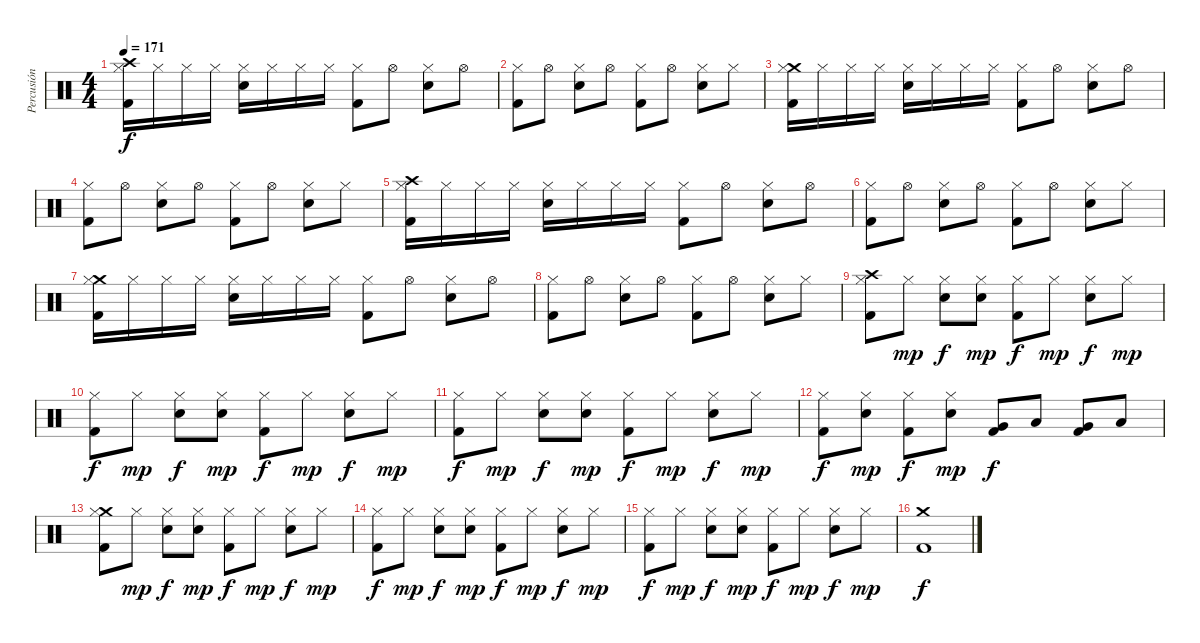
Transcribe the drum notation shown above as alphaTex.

\track ("Percusión" "Percusión") {instrument percussion}
\staff {score}
\articulation defaults
\ts (4 4)
\tempo 171
\clef neutral
\ks c
("Crash high (hit)" "Hi-Hat (closed)" "Kick (hit) 2").16{dy f} "Hi-Hat (closed)".16 "Hi-Hat (closed)".16 "Hi-Hat (closed)".16 ("Hi-Hat (closed)" "Electric Snare (hit)").16 "Hi-Hat (closed)".16 "Hi-Hat (closed)".16 "Hi-Hat (closed)".16 ("Hi-Hat (closed)" "Kick (hit) 2").8 "Hi-Hat (open)".8 ("Hi-Hat (closed)" "Electric Snare (hit)").8 "Hi-Hat (open)".8 |
("Hi-Hat (closed)" "Kick (hit) 2").8 "Hi-Hat (open)".8 ("Hi-Hat (closed)" "Electric Snare (hit)").8 "Hi-Hat (open)".8 ("Hi-Hat (closed)" "Kick (hit) 2").8 "Hi-Hat (open)".8 ("Hi-Hat (closed)" "Electric Snare (hit)").8 "Hi-Hat (closed)".8 |
("Crash medium (hit)" "Hi-Hat (closed)" "Kick (hit) 2").16 "Hi-Hat (closed)".16 "Hi-Hat (closed)".16 "Hi-Hat (closed)".16 ("Hi-Hat (closed)" "Electric Snare (hit)").16 "Hi-Hat (closed)".16 "Hi-Hat (closed)".16 "Hi-Hat (closed)".16 ("Hi-Hat (closed)" "Kick (hit) 2").8 "Hi-Hat (open)".8 ("Hi-Hat (closed)" "Electric Snare (hit)").8 "Hi-Hat (open)".8 |
("Hi-Hat (closed)" "Kick (hit) 2").8 "Hi-Hat (open)".8 ("Hi-Hat (closed)" "Electric Snare (hit)").8 "Hi-Hat (open)".8 ("Hi-Hat (closed)" "Kick (hit) 2").8 "Hi-Hat (open)".8 ("Hi-Hat (closed)" "Electric Snare (hit)").8 "Hi-Hat (closed)".8 |
("Crash high (hit)" "Hi-Hat (closed)" "Kick (hit) 2").16 "Hi-Hat (closed)".16 "Hi-Hat (closed)".16 "Hi-Hat (closed)".16 ("Hi-Hat (closed)" "Electric Snare (hit)").16 "Hi-Hat (closed)".16 "Hi-Hat (closed)".16 "Hi-Hat (closed)".16 ("Hi-Hat (closed)" "Kick (hit) 2").8 "Hi-Hat (open)".8 ("Hi-Hat (closed)" "Electric Snare (hit)").8 "Hi-Hat (open)".8 |
("Hi-Hat (closed)" "Kick (hit) 2").8 "Hi-Hat (open)".8 ("Hi-Hat (closed)" "Electric Snare (hit)").8 "Hi-Hat (open)".8 ("Hi-Hat (closed)" "Kick (hit) 2").8 "Hi-Hat (open)".8 ("Hi-Hat (closed)" "Electric Snare (hit)").8 "Hi-Hat (closed)".8 |
("Crash medium (hit)" "Hi-Hat (closed)" "Kick (hit) 2").16 "Hi-Hat (closed)".16 "Hi-Hat (closed)".16 "Hi-Hat (closed)".16 ("Hi-Hat (closed)" "Electric Snare (hit)").16 "Hi-Hat (closed)".16 "Hi-Hat (closed)".16 "Hi-Hat (closed)".16 ("Hi-Hat (closed)" "Kick (hit) 2").8 "Hi-Hat (open)".8 ("Hi-Hat (closed)" "Electric Snare (hit)").8 "Hi-Hat (open)".8 |
("Hi-Hat (closed)" "Kick (hit) 2").8 "Hi-Hat (open)".8 ("Hi-Hat (closed)" "Electric Snare (hit)").8 "Hi-Hat (open)".8 ("Hi-Hat (closed)" "Kick (hit) 2").8 "Hi-Hat (open)".8 ("Hi-Hat (closed)" "Electric Snare (hit)").8 "Hi-Hat (closed)".8 |
("Crash high (hit)" "Hi-Hat (closed)" "Kick (hit) 2").8 "Hi-Hat (closed)".8{dy mp} ("Hi-Hat (closed)" "Electric Snare (hit)").8{dy f} ("Hi-Hat (closed)" "Electric Snare (hit)").8{dy mp} ("Hi-Hat (closed)" "Kick (hit) 2").8{dy f} "Hi-Hat (closed)".8{dy mp} ("Hi-Hat (closed)" "Electric Snare (hit)").8{dy f} "Hi-Hat (closed)".8{dy mp} |
("Hi-Hat (closed)" "Kick (hit) 2").8{dy f} "Hi-Hat (closed)".8{dy mp} ("Hi-Hat (closed)" "Electric Snare (hit)").8{dy f} ("Hi-Hat (closed)" "Electric Snare (hit)").8{dy mp} ("Hi-Hat (closed)" "Kick (hit) 2").8{dy f} "Hi-Hat (closed)".8{dy mp} ("Hi-Hat (closed)" "Electric Snare (hit)").8{dy f} "Hi-Hat (closed)".8{dy mp} |
("Hi-Hat (closed)" "Kick (hit) 2").8{dy f} "Hi-Hat (closed)".8{dy mp} ("Hi-Hat (closed)" "Electric Snare (hit)").8{dy f} ("Hi-Hat (closed)" "Electric Snare (hit)").8{dy mp} ("Hi-Hat (closed)" "Kick (hit) 2").8{dy f} "Hi-Hat (closed)".8{dy mp} ("Hi-Hat (closed)" "Electric Snare (hit)").8{dy f} "Hi-Hat (closed)".8{dy mp} |
("Hi-Hat (closed)" "Kick (hit) 2").8{dy f} ("Hi-Hat (closed)" "Electric Snare (hit)").8{dy mp} ("Hi-Hat (closed)" "Kick (hit) 2").8{dy f} ("Hi-Hat (closed)" "Electric Snare (hit)").8{dy mp} ("Very Low Tom (hit)" "Kick (hit) 2").8{dy f} "Low Tom (hit)".8 ("Very Low Tom (hit)" "Kick (hit) 2").8 "Low Floor Tom (hit)".8 |
("Crash medium (hit)" "Hi-Hat (closed)" "Kick (hit) 2").8 "Hi-Hat (closed)".8{dy mp} ("Hi-Hat (closed)" "Electric Snare (hit)").8{dy f} ("Hi-Hat (closed)" "Electric Snare (hit)").8{dy mp} ("Hi-Hat (closed)" "Kick (hit) 2").8{dy f} "Hi-Hat (closed)".8{dy mp} ("Hi-Hat (closed)" "Electric Snare (hit)").8{dy f} "Hi-Hat (closed)".8{dy mp} |
("Hi-Hat (closed)" "Kick (hit) 2").8{dy f} "Hi-Hat (closed)".8{dy mp} ("Hi-Hat (closed)" "Electric Snare (hit)").8{dy f} ("Hi-Hat (closed)" "Electric Snare (hit)").8{dy mp} ("Hi-Hat (closed)" "Kick (hit) 2").8{dy f} "Hi-Hat (closed)".8{dy mp} ("Hi-Hat (closed)" "Electric Snare (hit)").8{dy f} "Hi-Hat (closed)".8{dy mp} |
("Hi-Hat (closed)" "Kick (hit) 2").8{dy f} "Hi-Hat (closed)".8{dy mp} ("Hi-Hat (closed)" "Electric Snare (hit)").8{dy f} ("Hi-Hat (closed)" "Electric Snare (hit)").8{dy mp} ("Hi-Hat (closed)" "Kick (hit) 2").8{dy f} "Hi-Hat (closed)".8{dy mp} ("Hi-Hat (closed)" "Electric Snare (hit)").8{dy f} "Hi-Hat (closed)".8{dy mp} |
("Crash medium (hit)" "Kick (hit) 2").1{dy f}
